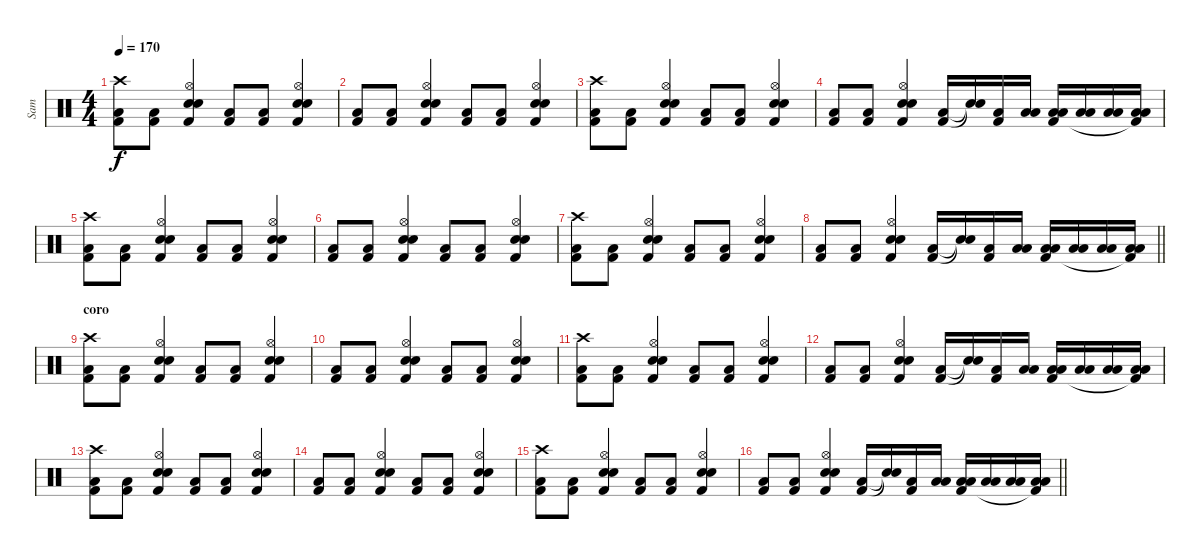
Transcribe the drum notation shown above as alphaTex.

\track ("Sam" "Sam") {instrument percussion}
\staff {score}
\articulation defaults
\ts (4 4)
\tempo 170
\clef neutral
\ks c
("Crash high (hit)" "Low Floor Tom (hit)" "Kick (hit) 2").8{dy f} ("Low Floor Tom (hit)" "Kick (hit) 2").8 ("Hi-Hat (open)" "Snare (hit) 2" "Snare (hit) 2" "Kick (hit) 2").4 ("Low Floor Tom (hit)" "Kick (hit) 2").8 ("Low Floor Tom (hit)" "Kick (hit) 2").8 ("Hi-Hat (open)" "Snare (hit) 2" "Snare (hit) 2" "Kick (hit) 2").4 |
("Low Floor Tom (hit)" "Kick (hit) 2").8 ("Low Floor Tom (hit)" "Kick (hit) 2").8 ("Hi-Hat (open)" "Snare (hit) 2" "Snare (hit) 2" "Kick (hit) 2").4 ("Low Floor Tom (hit)" "Kick (hit) 2").8 ("Low Floor Tom (hit)" "Kick (hit) 2").8 ("Hi-Hat (open)" "Snare (hit) 2" "Snare (hit) 2" "Kick (hit) 2").4 |
("Crash high (hit)" "Low Floor Tom (hit)" "Kick (hit) 2").8 ("Low Floor Tom (hit)" "Kick (hit) 2").8 ("Hi-Hat (open)" "Snare (hit) 2" "Snare (hit) 2" "Kick (hit) 2").4 ("Low Floor Tom (hit)" "Kick (hit) 2").8 ("Low Floor Tom (hit)" "Kick (hit) 2").8 ("Hi-Hat (open)" "Snare (hit) 2" "Snare (hit) 2" "Kick (hit) 2").4 |
("Low Floor Tom (hit)" "Kick (hit) 2").8 ("Low Floor Tom (hit)" "Kick (hit) 2").8 ("Hi-Hat (open)" "Snare (hit) 2" "Snare (hit) 2" "Kick (hit) 2").4 ("Low Floor Tom (hit)" "Kick (hit) 2").16 ("Snare (hit)"{t} "Snare (hit)"{t}).16 ("Low Floor Tom (hit)" "Kick (hit) 2").16 ("Low Floor Tom (hit)" "Low Tom (hit)").16 ("Low Floor Tom (hit)" "Low Tom (hit)" "Kick (hit) 2").16 ("Low Floor Tom (hit)" "Low Tom (hit)").16 ("Low Floor Tom (hit)" "Low Tom (hit)").16 ("Low Floor Tom (hit)" "Low Tom (hit)" "Kick (hit) 2"{t}).16 |
("Crash high (hit)" "Low Floor Tom (hit)" "Kick (hit) 2").8 ("Low Floor Tom (hit)" "Kick (hit) 2").8 ("Hi-Hat (open)" "Snare (hit) 2" "Snare (hit) 2" "Kick (hit) 2").4 ("Low Floor Tom (hit)" "Kick (hit) 2").8 ("Low Floor Tom (hit)" "Kick (hit) 2").8 ("Hi-Hat (open)" "Snare (hit) 2" "Snare (hit) 2" "Kick (hit) 2").4 |
("Low Floor Tom (hit)" "Kick (hit) 2").8 ("Low Floor Tom (hit)" "Kick (hit) 2").8 ("Hi-Hat (open)" "Snare (hit) 2" "Snare (hit) 2" "Kick (hit) 2").4 ("Low Floor Tom (hit)" "Kick (hit) 2").8 ("Low Floor Tom (hit)" "Kick (hit) 2").8 ("Hi-Hat (open)" "Snare (hit) 2" "Snare (hit) 2" "Kick (hit) 2").4 |
("Crash high (hit)" "Low Floor Tom (hit)" "Kick (hit) 2").8 ("Low Floor Tom (hit)" "Kick (hit) 2").8 ("Hi-Hat (open)" "Snare (hit) 2" "Snare (hit) 2" "Kick (hit) 2").4 ("Low Floor Tom (hit)" "Kick (hit) 2").8 ("Low Floor Tom (hit)" "Kick (hit) 2").8 ("Hi-Hat (open)" "Snare (hit) 2" "Snare (hit) 2" "Kick (hit) 2").4 |
\barLineRight lightlight
("Low Floor Tom (hit)" "Kick (hit) 2").8 ("Low Floor Tom (hit)" "Kick (hit) 2").8 ("Hi-Hat (open)" "Snare (hit) 2" "Snare (hit) 2" "Kick (hit) 2").4 ("Low Floor Tom (hit)" "Kick (hit) 2").16 ("Snare (hit)"{t} "Snare (hit)"{t}).16 ("Low Floor Tom (hit)" "Kick (hit) 2").16 ("Low Floor Tom (hit)" "Low Tom (hit)").16 ("Low Floor Tom (hit)" "Low Tom (hit)" "Kick (hit) 2").16 ("Low Floor Tom (hit)" "Low Tom (hit)").16 ("Low Floor Tom (hit)" "Low Tom (hit)").16 ("Low Floor Tom (hit)" "Low Tom (hit)" "Kick (hit) 2"{t}).16 |
\section ("" "coro")
("Crash high (hit)" "Low Floor Tom (hit)" "Kick (hit) 2").8 ("Low Floor Tom (hit)" "Kick (hit) 2").8 ("Hi-Hat (open)" "Snare (hit) 2" "Snare (hit) 2" "Kick (hit) 2").4 ("Low Floor Tom (hit)" "Kick (hit) 2").8 ("Low Floor Tom (hit)" "Kick (hit) 2").8 ("Hi-Hat (open)" "Snare (hit) 2" "Snare (hit) 2" "Kick (hit) 2").4 |
("Low Floor Tom (hit)" "Kick (hit) 2").8 ("Low Floor Tom (hit)" "Kick (hit) 2").8 ("Hi-Hat (open)" "Snare (hit) 2" "Snare (hit) 2" "Kick (hit) 2").4 ("Low Floor Tom (hit)" "Kick (hit) 2").8 ("Low Floor Tom (hit)" "Kick (hit) 2").8 ("Hi-Hat (open)" "Snare (hit) 2" "Snare (hit) 2" "Kick (hit) 2").4 |
("Crash high (hit)" "Low Floor Tom (hit)" "Kick (hit) 2").8 ("Low Floor Tom (hit)" "Kick (hit) 2").8 ("Hi-Hat (open)" "Snare (hit) 2" "Snare (hit) 2" "Kick (hit) 2").4 ("Low Floor Tom (hit)" "Kick (hit) 2").8 ("Low Floor Tom (hit)" "Kick (hit) 2").8 ("Hi-Hat (open)" "Snare (hit) 2" "Snare (hit) 2" "Kick (hit) 2").4 |
("Low Floor Tom (hit)" "Kick (hit) 2").8 ("Low Floor Tom (hit)" "Kick (hit) 2").8 ("Hi-Hat (open)" "Snare (hit) 2" "Snare (hit) 2" "Kick (hit) 2").4 ("Low Floor Tom (hit)" "Kick (hit) 2").16 ("Snare (hit)"{t} "Snare (hit)"{t}).16 ("Low Floor Tom (hit)" "Kick (hit) 2").16 ("Low Floor Tom (hit)" "Low Tom (hit)").16 ("Low Floor Tom (hit)" "Low Tom (hit)" "Kick (hit) 2").16 ("Low Floor Tom (hit)" "Low Tom (hit)").16 ("Low Floor Tom (hit)" "Low Tom (hit)").16 ("Low Floor Tom (hit)" "Low Tom (hit)" "Kick (hit) 2"{t}).16 |
("Crash high (hit)" "Low Floor Tom (hit)" "Kick (hit) 2").8 ("Low Floor Tom (hit)" "Kick (hit) 2").8 ("Hi-Hat (open)" "Snare (hit) 2" "Snare (hit) 2" "Kick (hit) 2").4 ("Low Floor Tom (hit)" "Kick (hit) 2").8 ("Low Floor Tom (hit)" "Kick (hit) 2").8 ("Hi-Hat (open)" "Snare (hit) 2" "Snare (hit) 2" "Kick (hit) 2").4 |
("Low Floor Tom (hit)" "Kick (hit) 2").8 ("Low Floor Tom (hit)" "Kick (hit) 2").8 ("Hi-Hat (open)" "Snare (hit) 2" "Snare (hit) 2" "Kick (hit) 2").4 ("Low Floor Tom (hit)" "Kick (hit) 2").8 ("Low Floor Tom (hit)" "Kick (hit) 2").8 ("Hi-Hat (open)" "Snare (hit) 2" "Snare (hit) 2" "Kick (hit) 2").4 |
("Crash high (hit)" "Low Floor Tom (hit)" "Kick (hit) 2").8 ("Low Floor Tom (hit)" "Kick (hit) 2").8 ("Hi-Hat (open)" "Snare (hit) 2" "Snare (hit) 2" "Kick (hit) 2").4 ("Low Floor Tom (hit)" "Kick (hit) 2").8 ("Low Floor Tom (hit)" "Kick (hit) 2").8 ("Hi-Hat (open)" "Snare (hit) 2" "Snare (hit) 2" "Kick (hit) 2").4 |
\barLineRight lightlight
("Low Floor Tom (hit)" "Kick (hit) 2").8 ("Low Floor Tom (hit)" "Kick (hit) 2").8 ("Hi-Hat (open)" "Snare (hit) 2" "Snare (hit) 2" "Kick (hit) 2").4 ("Low Floor Tom (hit)" "Kick (hit) 2").16 ("Snare (hit)"{t} "Snare (hit)"{t}).16 ("Low Floor Tom (hit)" "Kick (hit) 2").16 ("Low Floor Tom (hit)" "Low Tom (hit)").16 ("Low Floor Tom (hit)" "Low Tom (hit)" "Kick (hit) 2").16 ("Low Floor Tom (hit)" "Low Tom (hit)").16 ("Low Floor Tom (hit)" "Low Tom (hit)").16 ("Low Floor Tom (hit)" "Low Tom (hit)" "Kick (hit) 2"{t}).16
